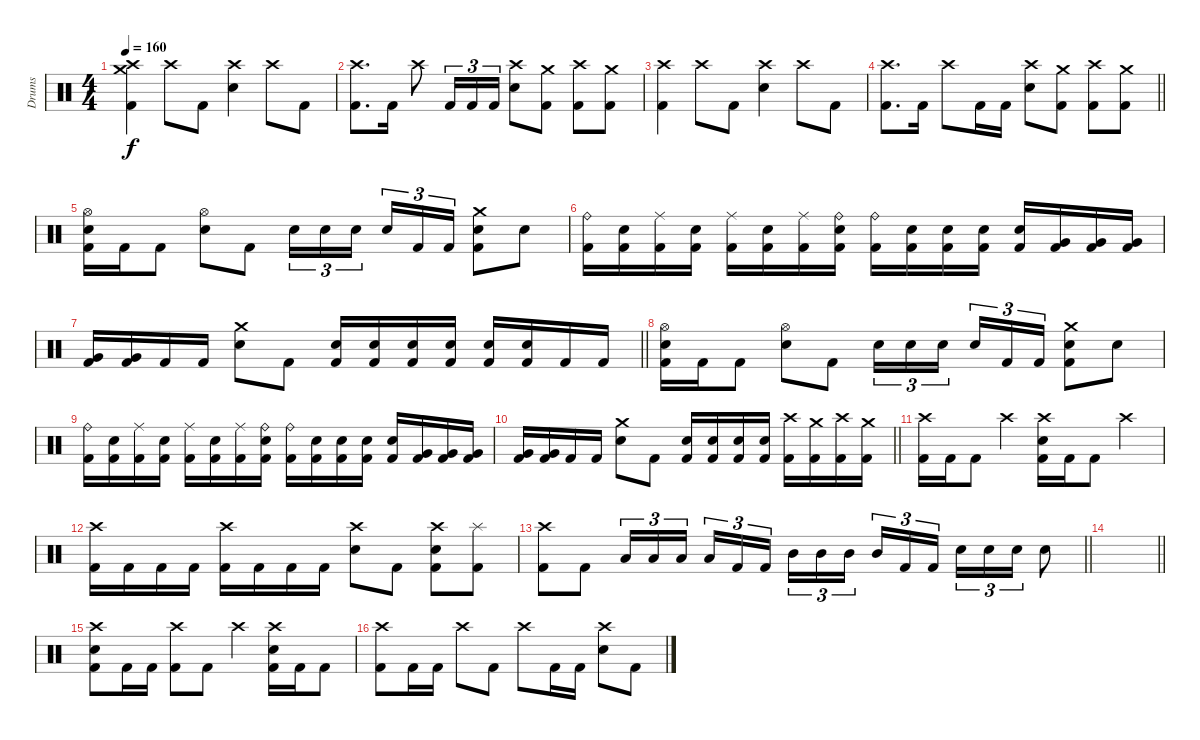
\track ("Drums" "Drums") {instrument percussion}
\staff {score}
\articulation defaults
\ts (4 4)
\tempo 160
\clef neutral
\ks c
("Crash high (hit)" "Crash medium (hit)" "Kick (hit) 2").4{dy f} "Crash high (hit)".8 "Kick (hit) 2".8 ("Crash high (hit)" "Electric Snare (hit)").4 "Crash high (hit)".8 "Kick (hit) 2".8 |
("Crash high (hit)" "Kick (hit) 2").8{d} "Kick (hit) 2".16 "Crash high (hit)".8 "Kick (hit) 2".16{tu (3 2)} "Kick (hit) 2".16{tu (3 2)} "Kick (hit) 2".16{tu (3 2)} ("Crash high (hit)" "Electric Snare (hit)").8 ("Crash medium (hit)" "Kick (hit) 2").8 ("Crash high (hit)" "Kick (hit) 2").8 ("Crash medium (hit)" "Kick (hit) 2").8 |
("Crash high (hit)" "Kick (hit) 2").4 "Crash high (hit)".8 "Kick (hit) 2".8 ("Crash high (hit)" "Electric Snare (hit)").4 "Crash high (hit)".8 "Kick (hit) 2".8 |
\barLineRight lightlight
("Crash high (hit)" "Kick (hit) 2").8{d} "Kick (hit) 2".16 "Crash high (hit)".8 "Kick (hit) 2".16 "Kick (hit) 2".16 ("Crash high (hit)" "Electric Snare (hit)").8 ("Crash medium (hit)" "Kick (hit) 2").8 ("Crash high (hit)" "Kick (hit) 2").8 ("Crash medium (hit)" "Kick (hit) 2").8 |
("Hi-Hat (open)" "Electric Snare (hit)" "Kick (hit) 2").16 "Kick (hit) 2".16 "Kick (hit) 2".8 ("Hi-Hat (open)" "Electric Snare (hit)").8 "Kick (hit) 2".8 "Electric Snare (hit)".16{tu (3 2)} "Electric Snare (hit)".16{tu (3 2)} "Electric Snare (hit)".16{tu (3 2) beam splitsecondary} "Electric Snare (hit)".16{tu (3 2)} "Kick (hit) 2".16{tu (3 2)} "Kick (hit) 2".16{tu (3 2)} ("Crash medium (hit)" "Electric Snare (hit)" "Kick (hit) 2").8 "Electric Snare (hit)".8 |
("Ride (bell)" "Kick (hit) 2").16 ("Electric Snare (hit)" "Kick (hit) 2").16 ("Ride (middle)" "Kick (hit) 2").16 ("Electric Snare (hit)" "Kick (hit) 2").16 ("Ride (middle)" "Kick (hit) 2").16 ("Electric Snare (hit)" "Kick (hit) 2").16 ("Ride (middle)" "Kick (hit) 2").16 ("Ride (bell)" "Electric Snare (hit)" "Kick (hit) 2").16 ("Ride (bell)" "Kick (hit) 2").16 ("Electric Snare (hit)" "Kick (hit) 2").16 ("Electric Snare (hit)" "Kick (hit) 2").16 ("Electric Snare (hit)" "Kick (hit) 2").16 ("Electric Snare (hit)" "Kick (hit) 2").16 ("Very Low Tom (hit)" "Kick (hit) 2").16 ("Very Low Tom (hit)" "Kick (hit) 2").16 ("Very Low Tom (hit)" "Kick (hit) 2").16 |
\barLineRight lightlight
("Very Low Tom (hit)" "Kick (hit) 2").16 ("Very Low Tom (hit)" "Kick (hit) 2").16 "Kick (hit) 2".16 "Kick (hit) 2".16 ("Crash medium (hit)" "Electric Snare (hit)").8 "Kick (hit) 2".8 ("Electric Snare (hit)" "Kick (hit) 2").16 ("Electric Snare (hit)" "Kick (hit) 2").16 ("Electric Snare (hit)" "Kick (hit) 2").16 ("Electric Snare (hit)" "Kick (hit) 2").16 ("Electric Snare (hit)" "Kick (hit) 2").16 ("Electric Snare (hit)" "Kick (hit) 2").16 "Kick (hit) 2".16 "Kick (hit) 2".16 |
("Hi-Hat (open)" "Electric Snare (hit)" "Kick (hit) 2").16 "Kick (hit) 2".16 "Kick (hit) 2".8 ("Hi-Hat (open)" "Electric Snare (hit)").8 "Kick (hit) 2".8 "Electric Snare (hit)".16{tu (3 2)} "Electric Snare (hit)".16{tu (3 2)} "Electric Snare (hit)".16{tu (3 2) beam splitsecondary} "Electric Snare (hit)".16{tu (3 2)} "Kick (hit) 2".16{tu (3 2)} "Kick (hit) 2".16{tu (3 2)} ("Crash medium (hit)" "Electric Snare (hit)" "Kick (hit) 2").8 "Electric Snare (hit)".8 |
("Ride (bell)" "Kick (hit) 2").16 ("Electric Snare (hit)" "Kick (hit) 2").16 ("Ride (middle)" "Kick (hit) 2").16 ("Electric Snare (hit)" "Kick (hit) 2").16 ("Ride (middle)" "Kick (hit) 2").16 ("Electric Snare (hit)" "Kick (hit) 2").16 ("Ride (middle)" "Kick (hit) 2").16 ("Ride (bell)" "Electric Snare (hit)" "Kick (hit) 2").16 ("Ride (bell)" "Kick (hit) 2").16 ("Electric Snare (hit)" "Kick (hit) 2").16 ("Electric Snare (hit)" "Kick (hit) 2").16 ("Electric Snare (hit)" "Kick (hit) 2").16 ("Electric Snare (hit)" "Kick (hit) 2").16 ("Very Low Tom (hit)" "Kick (hit) 2").16 ("Very Low Tom (hit)" "Kick (hit) 2").16 ("Very Low Tom (hit)" "Kick (hit) 2").16 |
\barLineRight lightlight
("Very Low Tom (hit)" "Kick (hit) 2").16 ("Very Low Tom (hit)" "Kick (hit) 2").16 "Kick (hit) 2".16 "Kick (hit) 2".16 ("Crash medium (hit)" "Electric Snare (hit)").8 "Kick (hit) 2".8 ("Electric Snare (hit)" "Kick (hit) 2").16 ("Electric Snare (hit)" "Kick (hit) 2").16 ("Electric Snare (hit)" "Kick (hit) 2").16 ("Electric Snare (hit)" "Kick (hit) 2").16 ("Crash high (hit)" "Kick (hit) 2").16 ("Crash medium (hit)" "Kick (hit) 2").16 ("Crash high (hit)" "Kick (hit) 2").16 ("Crash medium (hit)" "Kick (hit) 2").16 |
("Crash high (hit)" "Kick (hit) 2").16 "Kick (hit) 2".16 "Kick (hit) 2".8 "Crash high (hit)".4 ("Crash high (hit)" "Electric Snare (hit)" "Kick (hit) 2").16 "Kick (hit) 2".16 "Kick (hit) 2".8 "Crash high (hit)".4 |
("Crash high (hit)" "Kick (hit) 2").16 "Kick (hit) 2".16 "Kick (hit) 2".16 "Kick (hit) 2".16 ("Crash high (hit)" "Kick (hit) 2").16 "Kick (hit) 2".16 "Kick (hit) 2".16 "Kick (hit) 2".16 ("Crash high (hit)" "Electric Snare (hit)").8 "Kick (hit) 2".8 ("Crash high (hit)" "Electric Snare (hit)" "Kick (hit) 2").8 ("Splash (hit)" "Kick (hit) 2").8 |
\barLineRight lightlight
("Crash high (hit)" "Kick (hit) 2").8 "Kick (hit) 2".8 "Low Tom (hit)".16{tu (3 2)} "Low Tom (hit)".16{tu (3 2)} "Low Tom (hit)".16{tu (3 2) beam splitsecondary} "Low Tom (hit)".16{tu (3 2)} "Kick (hit) 2".16{tu (3 2)} "Kick (hit) 2".16{tu (3 2)} "Mid Tom (hit)".16{tu (3 2)} "Mid Tom (hit)".16{tu (3 2)} "Mid Tom (hit)".16{tu (3 2) beam splitsecondary} "Mid Tom (hit)".16{tu (3 2)} "Kick (hit) 2".16{tu (3 2)} "Kick (hit) 2".16{tu (3 2)} "Electric Snare (hit)".16{tu (3 2)} "Electric Snare (hit)".16{tu (3 2)} "Electric Snare (hit)".16{tu (3 2)} "Electric Snare (hit)".8 |
\barLineRight lightlight
|
("Crash high (hit)" "Electric Snare (hit)" "Kick (hit) 2").8 "Kick (hit) 2".16 "Kick (hit) 2".16 ("Crash high (hit)" "Kick (hit) 2").8 "Kick (hit) 2".8 "Crash high (hit)".4 ("Crash high (hit)" "Electric Snare (hit)" "Kick (hit) 2").16 "Kick (hit) 2".16 "Kick (hit) 2".8 |
("Crash high (hit)" "Kick (hit) 2").8 "Kick (hit) 2".16 "Kick (hit) 2".16 "Crash high (hit)".8 "Kick (hit) 2".8 "Crash high (hit)".8 "Kick (hit) 2".16 "Kick (hit) 2".16 ("Crash high (hit)" "Electric Snare (hit)").8 "Kick (hit) 2".8
